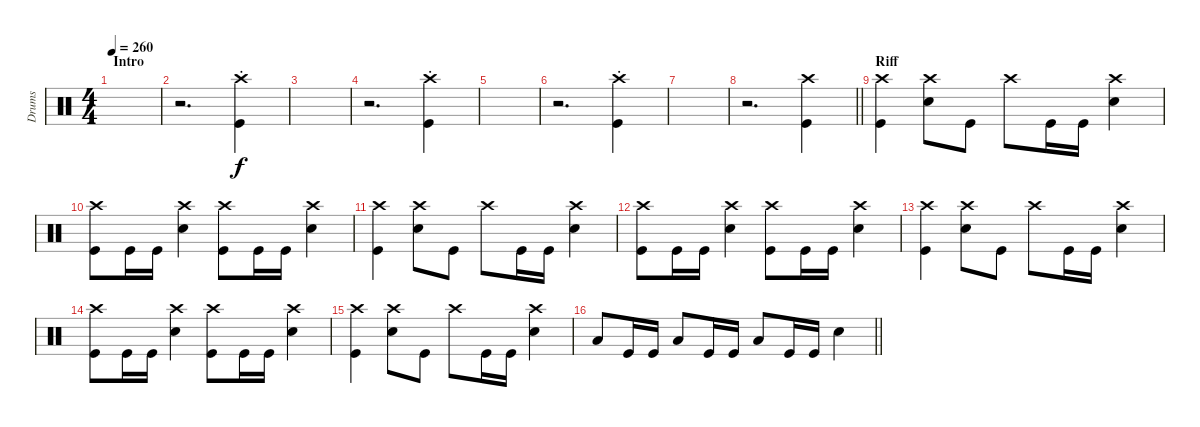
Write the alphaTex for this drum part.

\track ("Drums" "Drums") {instrument percussion}
\staff {score}
\articulation defaults
\ts (4 4)
\section ("" "Intro")
\tempo 260
\clef neutral
\ks c
|
r.2{d} ("Kick (hit)" "Crash high (hit)"{st}).4 |
|
r.2{d} ("Kick (hit)" "Crash high (hit)"{st}).4 |
|
r.2{d} ("Kick (hit)" "Crash high (hit)"{st}).4 |
|
\barLineRight lightlight
r.2{d} ("Kick (hit)" "Crash high (hit)").4 |
\section ("" "Riff")
("Kick (hit)" "Crash high (hit)").4 ("Snare (hit) 2" "Crash high (hit)").8 "Kick (hit)".8 "Crash high (hit)".8 "Kick (hit)".16 "Kick (hit)".16 ("Snare (hit) 2" "Crash high (hit)").4 |
("Kick (hit)" "Crash high (hit)").8 "Kick (hit)".16 "Kick (hit)".16 ("Snare (hit) 2" "Crash high (hit)").4 ("Kick (hit)" "Crash high (hit)").8 "Kick (hit)".16 "Kick (hit)".16 ("Snare (hit) 2" "Crash high (hit)").4 |
("Kick (hit)" "Crash high (hit)").4 ("Snare (hit) 2" "Crash high (hit)").8 "Kick (hit)".8 "Crash high (hit)".8 "Kick (hit)".16 "Kick (hit)".16 ("Snare (hit) 2" "Crash high (hit)").4 |
("Kick (hit)" "Crash high (hit)").8 "Kick (hit)".16 "Kick (hit)".16 ("Snare (hit) 2" "Crash high (hit)").4 ("Kick (hit)" "Crash high (hit)").8 "Kick (hit)".16 "Kick (hit)".16 ("Snare (hit) 2" "Crash high (hit)").4 |
("Kick (hit)" "Crash high (hit)").4 ("Snare (hit) 2" "Crash high (hit)").8 "Kick (hit)".8 "Crash high (hit)".8 "Kick (hit)".16 "Kick (hit)".16 ("Snare (hit) 2" "Crash high (hit)").4 |
("Kick (hit)" "Crash high (hit)").8 "Kick (hit)".16 "Kick (hit)".16 ("Snare (hit) 2" "Crash high (hit)").4 ("Kick (hit)" "Crash high (hit)").8 "Kick (hit)".16 "Kick (hit)".16 ("Snare (hit) 2" "Crash high (hit)").4 |
("Kick (hit)" "Crash high (hit)").4 ("Snare (hit) 2" "Crash high (hit)").8 "Kick (hit)".8 "Crash high (hit)".8 "Kick (hit)".16 "Kick (hit)".16 ("Snare (hit) 2" "Crash high (hit)").4 |
\barLineRight lightlight "Low Floor Tom (hit)".8 "Kick (hit)".16 "Kick (hit)".16 "Low Floor Tom (hit)".8 "Kick (hit)".16 "Kick (hit)".16 "Low Floor Tom (hit)".8 "Kick (hit)".16 "Kick (hit)".16 "Snare (hit) 2".4
